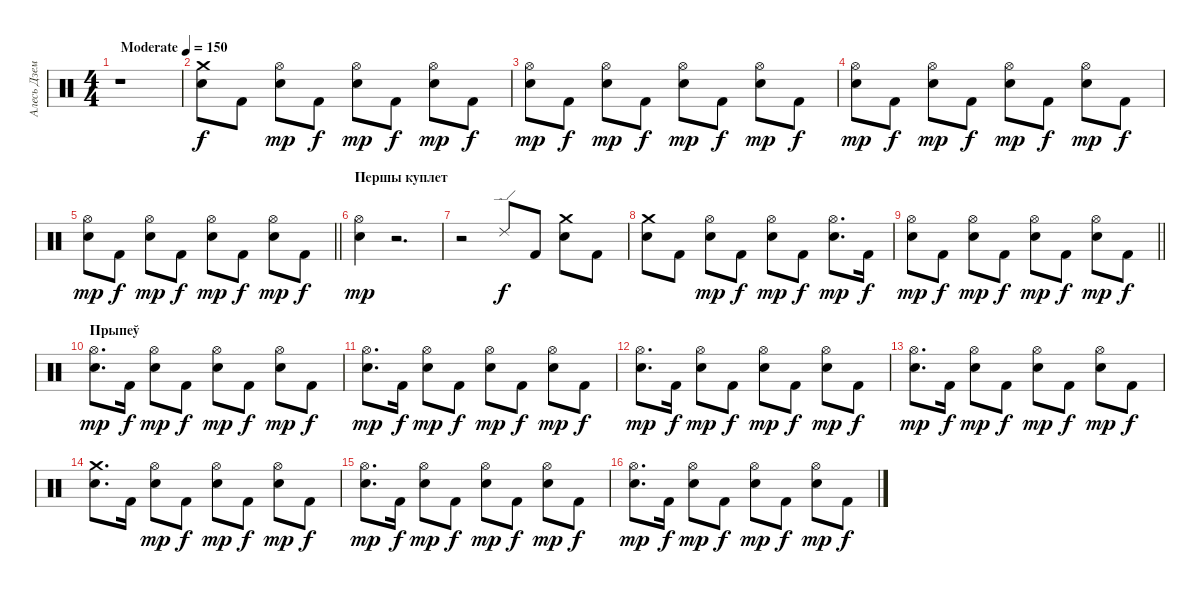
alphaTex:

\track ("Алесь Дземідовіч" "Алесь Дзем") {instrument percussion}
\staff {score}
\articulation defaults
\ts (4 4)
\tempo (150 "Moderate")
\clef neutral
\ks c
r.1{dy f} |
("Crash medium (hit)" "Electric Snare (hit)").8 "Kick (hit) 2".8 ("Hi-Hat (open)" "Electric Snare (hit)").8{dy mp} "Kick (hit) 2".8{dy f} ("Hi-Hat (open)" "Electric Snare (hit)").8{dy mp} "Kick (hit) 2".8{dy f} ("Hi-Hat (open)" "Electric Snare (hit)").8{dy mp} "Kick (hit) 2".8{dy f} |
("Hi-Hat (open)" "Electric Snare (hit)").8{dy mp} "Kick (hit) 2".8{dy f} ("Hi-Hat (open)" "Electric Snare (hit)").8{dy mp} "Kick (hit) 2".8{dy f} ("Hi-Hat (open)" "Electric Snare (hit)").8{dy mp} "Kick (hit) 2".8{dy f} ("Hi-Hat (open)" "Electric Snare (hit)").8{dy mp} "Kick (hit) 2".8{dy f} |
("Hi-Hat (open)" "Electric Snare (hit)").8{dy mp} "Kick (hit) 2".8{dy f} ("Hi-Hat (open)" "Electric Snare (hit)").8{dy mp} "Kick (hit) 2".8{dy f} ("Hi-Hat (open)" "Electric Snare (hit)").8{dy mp} "Kick (hit) 2".8{dy f} ("Hi-Hat (open)" "Electric Snare (hit)").8{dy mp} "Kick (hit) 2".8{dy f} |
\barLineRight lightlight
("Hi-Hat (open)" "Electric Snare (hit)").8{dy mp} "Kick (hit) 2".8{dy f} ("Hi-Hat (open)" "Electric Snare (hit)").8{dy mp} "Kick (hit) 2".8{dy f} ("Hi-Hat (open)" "Electric Snare (hit)").8{dy mp} "Kick (hit) 2".8{dy f} ("Hi-Hat (open)" "Electric Snare (hit)").8{dy mp} "Kick (hit) 2".8{dy f} |
\section ("" "Першы куплет")
("Hi-Hat (open)" "Electric Snare (hit)").4{dy mp} r.2{d} |
r.2 "Ride (edge) 2".8{dy f} "Kick (hit) 2".8 ("Crash medium (hit)" "Electric Snare (hit)").8 "Kick (hit) 2".8 |
("Crash medium (hit)" "Electric Snare (hit)").8 "Kick (hit) 2".8 ("Hi-Hat (open)" "Electric Snare (hit)").8{dy mp} "Kick (hit) 2".8{dy f} ("Hi-Hat (open)" "Electric Snare (hit)").8{dy mp} "Kick (hit) 2".8{dy f} ("Hi-Hat (open)" "Electric Snare (hit)").8{d dy mp} "Kick (hit) 2".16{dy f} |
\barLineRight lightlight
("Hi-Hat (open)" "Electric Snare (hit)").8{dy mp} "Kick (hit) 2".8{dy f} ("Hi-Hat (open)" "Electric Snare (hit)").8{dy mp} "Kick (hit) 2".8{dy f} ("Hi-Hat (open)" "Electric Snare (hit)").8{dy mp} "Kick (hit) 2".8{dy f} ("Hi-Hat (open)" "Electric Snare (hit)").8{dy mp} "Kick (hit) 2".8{dy f} |
\section ("" "Прыпеў")
("Hi-Hat (open)" "Electric Snare (hit)").8{d dy mp} "Kick (hit) 2".16{dy f} ("Hi-Hat (open)" "Electric Snare (hit)").8{dy mp} "Kick (hit) 2".8{dy f} ("Hi-Hat (open)" "Electric Snare (hit)").8{dy mp} "Kick (hit) 2".8{dy f} ("Hi-Hat (open)" "Electric Snare (hit)").8{dy mp} "Kick (hit) 2".8{dy f} |
("Hi-Hat (open)" "Electric Snare (hit)").8{d dy mp} "Kick (hit) 2".16{dy f} ("Hi-Hat (open)" "Electric Snare (hit)").8{dy mp} "Kick (hit) 2".8{dy f} ("Hi-Hat (open)" "Electric Snare (hit)").8{dy mp} "Kick (hit) 2".8{dy f} ("Hi-Hat (open)" "Electric Snare (hit)").8{dy mp} "Kick (hit) 2".8{dy f} |
("Hi-Hat (open)" "Electric Snare (hit)").8{d dy mp} "Kick (hit) 2".16{dy f} ("Hi-Hat (open)" "Electric Snare (hit)").8{dy mp} "Kick (hit) 2".8{dy f} ("Hi-Hat (open)" "Electric Snare (hit)").8{dy mp} "Kick (hit) 2".8{dy f} ("Hi-Hat (open)" "Electric Snare (hit)").8{dy mp} "Kick (hit) 2".8{dy f} |
("Hi-Hat (open)" "Electric Snare (hit)").8{d dy mp} "Kick (hit) 2".16{dy f} ("Hi-Hat (open)" "Electric Snare (hit)").8{dy mp} "Kick (hit) 2".8{dy f} ("Hi-Hat (open)" "Electric Snare (hit)").8{dy mp} "Kick (hit) 2".8{dy f} ("Hi-Hat (open)" "Electric Snare (hit)").8{dy mp} "Kick (hit) 2".8{dy f} |
("Crash medium (hit)" "Electric Snare (hit)").8{d} "Kick (hit) 2".16 ("Hi-Hat (open)" "Electric Snare (hit)").8{dy mp} "Kick (hit) 2".8{dy f} ("Hi-Hat (open)" "Electric Snare (hit)").8{dy mp} "Kick (hit) 2".8{dy f} ("Hi-Hat (open)" "Electric Snare (hit)").8{dy mp} "Kick (hit) 2".8{dy f} |
("Hi-Hat (open)" "Electric Snare (hit)").8{d dy mp} "Kick (hit) 2".16{dy f} ("Hi-Hat (open)" "Electric Snare (hit)").8{dy mp} "Kick (hit) 2".8{dy f} ("Hi-Hat (open)" "Electric Snare (hit)").8{dy mp} "Kick (hit) 2".8{dy f} ("Hi-Hat (open)" "Electric Snare (hit)").8{dy mp} "Kick (hit) 2".8{dy f} |
("Hi-Hat (open)" "Electric Snare (hit)").8{d dy mp} "Kick (hit) 2".16{dy f} ("Hi-Hat (open)" "Electric Snare (hit)").8{dy mp} "Kick (hit) 2".8{dy f} ("Hi-Hat (open)" "Electric Snare (hit)").8{dy mp} "Kick (hit) 2".8{dy f} ("Hi-Hat (open)" "Electric Snare (hit)").8{dy mp} "Kick (hit) 2".8{dy f}
